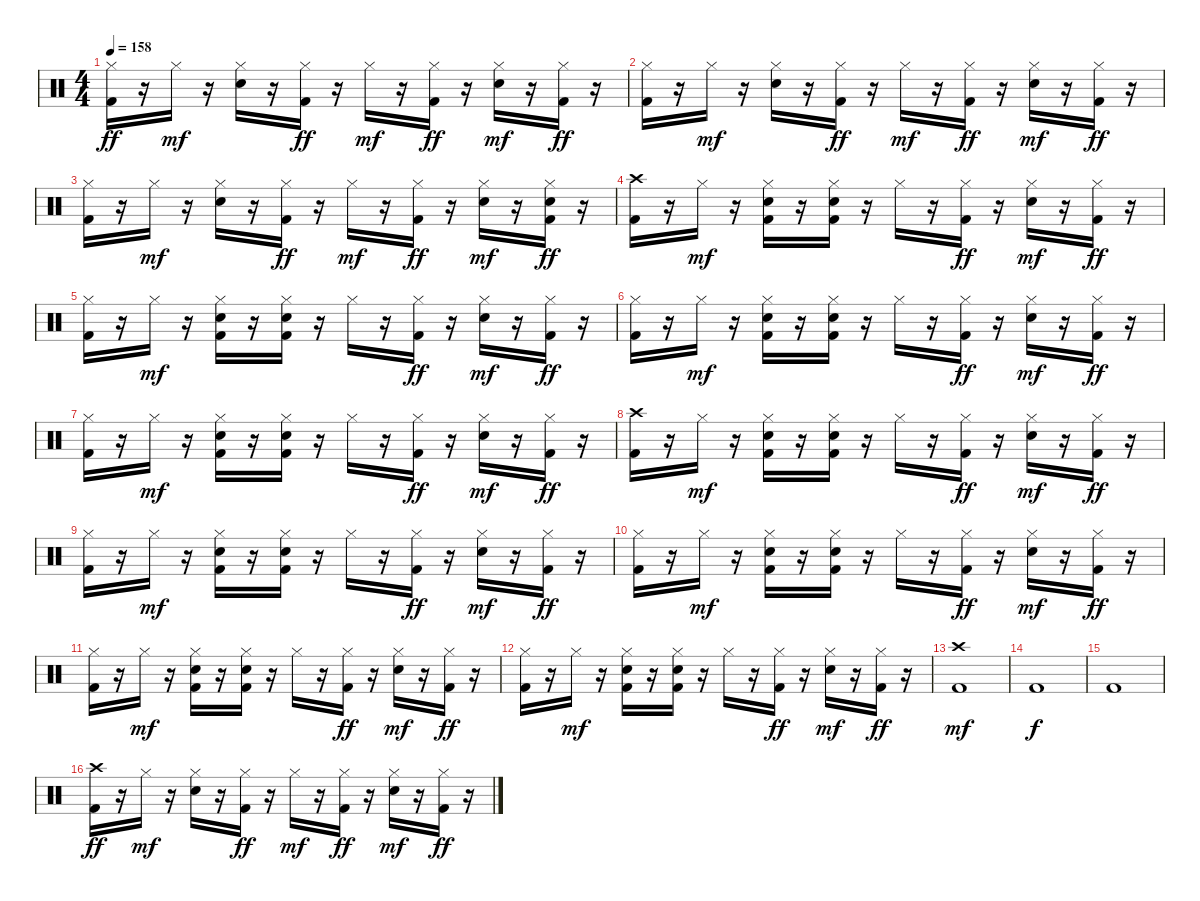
\track ("   " "   ") {instrument percussion}
\staff
\articulation defaults
\ts (4 4)
\tempo 158
\clef neutral
\ks c
("Hi-Hat (closed)" "Kick (hit) 2").16{dy ff} r.16 "Hi-Hat (closed)".16{dy mf} r.16 ("Hi-Hat (closed)" "Electric Snare (hit)").16 r.16 ("Hi-Hat (closed)" "Kick (hit) 2").16{dy ff} r.16 "Hi-Hat (closed)".16{dy mf} r.16 ("Hi-Hat (closed)" "Kick (hit) 2").16{dy ff} r.16 ("Hi-Hat (closed)" "Electric Snare (hit)").16{dy mf} r.16 ("Hi-Hat (closed)" "Kick (hit) 2").16{dy ff} r.16 |
("Hi-Hat (closed)" "Kick (hit) 2").16 r.16 "Hi-Hat (closed)".16{dy mf} r.16 ("Hi-Hat (closed)" "Electric Snare (hit)").16 r.16 ("Hi-Hat (closed)" "Kick (hit) 2").16{dy ff} r.16 "Hi-Hat (closed)".16{dy mf} r.16 ("Hi-Hat (closed)" "Kick (hit) 2").16{dy ff} r.16 ("Hi-Hat (closed)" "Electric Snare (hit)").16{dy mf} r.16 ("Hi-Hat (closed)" "Kick (hit) 2").16{dy ff} r.16 |
("Hi-Hat (closed)" "Kick (hit) 2").16 r.16 "Hi-Hat (closed)".16{dy mf} r.16 ("Hi-Hat (closed)" "Electric Snare (hit)").16 r.16 ("Hi-Hat (closed)" "Kick (hit) 2").16{dy ff} r.16 "Hi-Hat (closed)".16{dy mf} r.16 ("Hi-Hat (closed)" "Kick (hit) 2").16{dy ff} r.16 ("Hi-Hat (closed)" "Electric Snare (hit)").16{dy mf} r.16 ("Hi-Hat (closed)" "Electric Snare (hit)" "Kick (hit) 2").16{dy ff} r.16 |
("Crash high (hit)" "Kick (hit) 2").16 r.16 "Hi-Hat (closed)".16{dy mf} r.16 ("Hi-Hat (closed)" "Electric Snare (hit)" "Kick (hit) 2").16 r.16 ("Hi-Hat (closed)" "Electric Snare (hit)" "Kick (hit) 2").16 r.16 "Hi-Hat (closed)".16 r.16 ("Hi-Hat (closed)" "Kick (hit) 2").16{dy ff} r.16 ("Hi-Hat (closed)" "Electric Snare (hit)").16{dy mf} r.16 ("Hi-Hat (closed)" "Kick (hit) 2").16{dy ff} r.16 |
("Hi-Hat (closed)" "Kick (hit) 2").16 r.16 "Hi-Hat (closed)".16{dy mf} r.16 ("Hi-Hat (closed)" "Electric Snare (hit)" "Kick (hit) 2").16 r.16 ("Hi-Hat (closed)" "Electric Snare (hit)" "Kick (hit) 2").16 r.16 "Hi-Hat (closed)".16 r.16 ("Hi-Hat (closed)" "Kick (hit) 2").16{dy ff} r.16 ("Hi-Hat (closed)" "Electric Snare (hit)").16{dy mf} r.16 ("Hi-Hat (closed)" "Kick (hit) 2").16{dy ff} r.16 |
("Hi-Hat (closed)" "Kick (hit) 2").16 r.16 "Hi-Hat (closed)".16{dy mf} r.16 ("Hi-Hat (closed)" "Electric Snare (hit)" "Kick (hit) 2").16 r.16 ("Hi-Hat (closed)" "Electric Snare (hit)" "Kick (hit) 2").16 r.16 "Hi-Hat (closed)".16 r.16 ("Hi-Hat (closed)" "Kick (hit) 2").16{dy ff} r.16 ("Hi-Hat (closed)" "Electric Snare (hit)").16{dy mf} r.16 ("Hi-Hat (closed)" "Kick (hit) 2").16{dy ff} r.16 |
("Hi-Hat (closed)" "Kick (hit) 2").16 r.16 "Hi-Hat (closed)".16{dy mf} r.16 ("Hi-Hat (closed)" "Electric Snare (hit)" "Kick (hit) 2").16 r.16 ("Hi-Hat (closed)" "Electric Snare (hit)" "Kick (hit) 2").16 r.16 "Hi-Hat (closed)".16 r.16 ("Hi-Hat (closed)" "Kick (hit) 2").16{dy ff} r.16 ("Hi-Hat (closed)" "Electric Snare (hit)").16{dy mf} r.16 ("Hi-Hat (closed)" "Kick (hit) 2").16{dy ff} r.16 |
("Crash high (hit)" "Kick (hit) 2").16 r.16 "Hi-Hat (closed)".16{dy mf} r.16 ("Hi-Hat (closed)" "Electric Snare (hit)" "Kick (hit) 2").16 r.16 ("Hi-Hat (closed)" "Electric Snare (hit)" "Kick (hit) 2").16 r.16 "Hi-Hat (closed)".16 r.16 ("Hi-Hat (closed)" "Kick (hit) 2").16{dy ff} r.16 ("Hi-Hat (closed)" "Electric Snare (hit)").16{dy mf} r.16 ("Hi-Hat (closed)" "Kick (hit) 2").16{dy ff} r.16 |
("Hi-Hat (closed)" "Kick (hit) 2").16 r.16 "Hi-Hat (closed)".16{dy mf} r.16 ("Hi-Hat (closed)" "Electric Snare (hit)" "Kick (hit) 2").16 r.16 ("Hi-Hat (closed)" "Electric Snare (hit)" "Kick (hit) 2").16 r.16 "Hi-Hat (closed)".16 r.16 ("Hi-Hat (closed)" "Kick (hit) 2").16{dy ff} r.16 ("Hi-Hat (closed)" "Electric Snare (hit)").16{dy mf} r.16 ("Hi-Hat (closed)" "Kick (hit) 2").16{dy ff} r.16 |
("Hi-Hat (closed)" "Kick (hit) 2").16 r.16 "Hi-Hat (closed)".16{dy mf} r.16 ("Hi-Hat (closed)" "Electric Snare (hit)" "Kick (hit) 2").16 r.16 ("Hi-Hat (closed)" "Electric Snare (hit)" "Kick (hit) 2").16 r.16 "Hi-Hat (closed)".16 r.16 ("Hi-Hat (closed)" "Kick (hit) 2").16{dy ff} r.16 ("Hi-Hat (closed)" "Electric Snare (hit)").16{dy mf} r.16 ("Hi-Hat (closed)" "Kick (hit) 2").16{dy ff} r.16 |
("Hi-Hat (closed)" "Kick (hit) 2").16 r.16 "Hi-Hat (closed)".16{dy mf} r.16 ("Hi-Hat (closed)" "Electric Snare (hit)" "Kick (hit) 2").16 r.16 ("Hi-Hat (closed)" "Electric Snare (hit)" "Kick (hit) 2").16 r.16 "Hi-Hat (closed)".16 r.16 ("Hi-Hat (closed)" "Kick (hit) 2").16{dy ff} r.16 ("Hi-Hat (closed)" "Electric Snare (hit)").16{dy mf} r.16 ("Hi-Hat (closed)" "Kick (hit) 2").16{dy ff} r.16 |
("Hi-Hat (closed)" "Kick (hit) 2").16 r.16 "Hi-Hat (closed)".16{dy mf} r.16 ("Hi-Hat (closed)" "Electric Snare (hit)" "Kick (hit) 2").16 r.16 ("Hi-Hat (closed)" "Electric Snare (hit)" "Kick (hit) 2").16 r.16 "Hi-Hat (closed)".16 r.16 ("Hi-Hat (closed)" "Kick (hit) 2").16{dy ff} r.16 ("Hi-Hat (closed)" "Electric Snare (hit)").16{dy mf} r.16 ("Hi-Hat (closed)" "Kick (hit) 2").16{dy ff} r.16 |
("Crash high (hit)" "Kick (hit) 2").1{dy mf} |
"Kick (hit) 2".1{dy f} |
"Kick (hit) 2".1 |
("Crash high (hit)" "Kick (hit) 2").16{dy ff} r.16 "Hi-Hat (closed)".16{dy mf} r.16 ("Hi-Hat (closed)" "Electric Snare (hit)").16 r.16 ("Hi-Hat (closed)" "Kick (hit) 2").16{dy ff} r.16 "Hi-Hat (closed)".16{dy mf} r.16 ("Hi-Hat (closed)" "Kick (hit) 2").16{dy ff} r.16 ("Hi-Hat (closed)" "Electric Snare (hit)").16{dy mf} r.16 ("Hi-Hat (closed)" "Kick (hit) 2").16{dy ff} r.16
